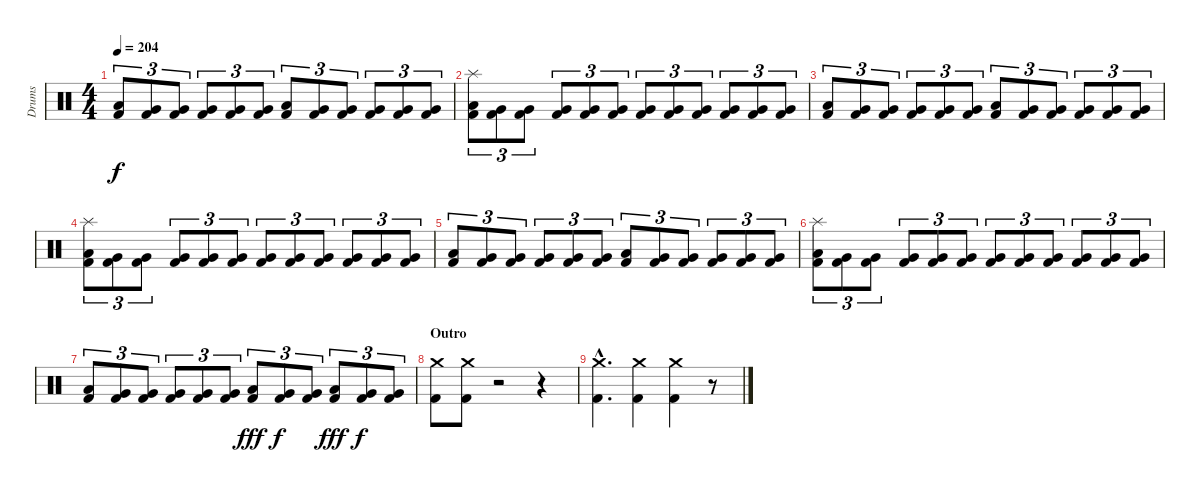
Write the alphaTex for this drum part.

\track ("Drums" "Drums") {instrument percussion}
\staff {score}
\articulation defaults
\ts (4 4)
\tempo 204
\clef neutral
\ks c
("Low Tom (hit)" "Kick (hit) 2").8{tu (3 2) dy f} ("Very Low Tom (hit)" "Kick (hit) 2").8{tu (3 2)} ("Very Low Tom (hit)" "Kick (hit) 2").8{tu (3 2)} ("Very Low Tom (hit)" "Kick (hit) 2").8{tu (3 2)} ("Very Low Tom (hit)" "Kick (hit) 2").8{tu (3 2)} ("Very Low Tom (hit)" "Kick (hit) 2").8{tu (3 2)} ("Low Tom (hit)" "Kick (hit) 2").8{tu (3 2)} ("Very Low Tom (hit)" "Kick (hit) 2").8{tu (3 2)} ("Very Low Tom (hit)" "Kick (hit) 2").8{tu (3 2)} ("Very Low Tom (hit)" "Kick (hit) 2").8{tu (3 2)} ("Very Low Tom (hit)" "Kick (hit) 2").8{tu (3 2)} ("Very Low Tom (hit)" "Kick (hit) 2").8{tu (3 2)} |
("Splash (hit)" "Low Tom (hit)" "Kick (hit) 2").8{tu (3 2)} ("Very Low Tom (hit)" "Kick (hit) 2").8{tu (3 2)} ("Very Low Tom (hit)" "Kick (hit) 2").8{tu (3 2)} ("Very Low Tom (hit)" "Kick (hit) 2").8{tu (3 2)} ("Very Low Tom (hit)" "Kick (hit) 2").8{tu (3 2)} ("Very Low Tom (hit)" "Kick (hit) 2").8{tu (3 2)} ("Very Low Tom (hit)" "Kick (hit) 2").8{tu (3 2)} ("Very Low Tom (hit)" "Kick (hit) 2").8{tu (3 2)} ("Very Low Tom (hit)" "Kick (hit) 2").8{tu (3 2)} ("Very Low Tom (hit)" "Kick (hit) 2").8{tu (3 2)} ("Very Low Tom (hit)" "Kick (hit) 2").8{tu (3 2)} ("Very Low Tom (hit)" "Kick (hit) 2").8{tu (3 2)} |
("Low Tom (hit)" "Kick (hit) 2").8{tu (3 2)} ("Very Low Tom (hit)" "Kick (hit) 2").8{tu (3 2)} ("Very Low Tom (hit)" "Kick (hit) 2").8{tu (3 2)} ("Very Low Tom (hit)" "Kick (hit) 2").8{tu (3 2)} ("Very Low Tom (hit)" "Kick (hit) 2").8{tu (3 2)} ("Very Low Tom (hit)" "Kick (hit) 2").8{tu (3 2)} ("Low Tom (hit)" "Kick (hit) 2").8{tu (3 2)} ("Very Low Tom (hit)" "Kick (hit) 2").8{tu (3 2)} ("Very Low Tom (hit)" "Kick (hit) 2").8{tu (3 2)} ("Very Low Tom (hit)" "Kick (hit) 2").8{tu (3 2)} ("Very Low Tom (hit)" "Kick (hit) 2").8{tu (3 2)} ("Very Low Tom (hit)" "Kick (hit) 2").8{tu (3 2)} |
("Splash (hit)" "Low Tom (hit)" "Kick (hit) 2").8{tu (3 2)} ("Very Low Tom (hit)" "Kick (hit) 2").8{tu (3 2)} ("Very Low Tom (hit)" "Kick (hit) 2").8{tu (3 2)} ("Very Low Tom (hit)" "Kick (hit) 2").8{tu (3 2)} ("Very Low Tom (hit)" "Kick (hit) 2").8{tu (3 2)} ("Very Low Tom (hit)" "Kick (hit) 2").8{tu (3 2)} ("Very Low Tom (hit)" "Kick (hit) 2").8{tu (3 2)} ("Very Low Tom (hit)" "Kick (hit) 2").8{tu (3 2)} ("Very Low Tom (hit)" "Kick (hit) 2").8{tu (3 2)} ("Very Low Tom (hit)" "Kick (hit) 2").8{tu (3 2)} ("Very Low Tom (hit)" "Kick (hit) 2").8{tu (3 2)} ("Very Low Tom (hit)" "Kick (hit) 2").8{tu (3 2)} |
("Low Tom (hit)" "Kick (hit) 2").8{tu (3 2)} ("Very Low Tom (hit)" "Kick (hit) 2").8{tu (3 2)} ("Very Low Tom (hit)" "Kick (hit) 2").8{tu (3 2)} ("Very Low Tom (hit)" "Kick (hit) 2").8{tu (3 2)} ("Very Low Tom (hit)" "Kick (hit) 2").8{tu (3 2)} ("Very Low Tom (hit)" "Kick (hit) 2").8{tu (3 2)} ("Low Tom (hit)" "Kick (hit) 2").8{tu (3 2)} ("Very Low Tom (hit)" "Kick (hit) 2").8{tu (3 2)} ("Very Low Tom (hit)" "Kick (hit) 2").8{tu (3 2)} ("Very Low Tom (hit)" "Kick (hit) 2").8{tu (3 2)} ("Very Low Tom (hit)" "Kick (hit) 2").8{tu (3 2)} ("Very Low Tom (hit)" "Kick (hit) 2").8{tu (3 2)} |
("Splash (hit)" "Low Tom (hit)" "Kick (hit) 2").8{tu (3 2)} ("Very Low Tom (hit)" "Kick (hit) 2").8{tu (3 2)} ("Very Low Tom (hit)" "Kick (hit) 2").8{tu (3 2)} ("Very Low Tom (hit)" "Kick (hit) 2").8{tu (3 2)} ("Very Low Tom (hit)" "Kick (hit) 2").8{tu (3 2)} ("Very Low Tom (hit)" "Kick (hit) 2").8{tu (3 2)} ("Very Low Tom (hit)" "Kick (hit) 2").8{tu (3 2)} ("Very Low Tom (hit)" "Kick (hit) 2").8{tu (3 2)} ("Very Low Tom (hit)" "Kick (hit) 2").8{tu (3 2)} ("Very Low Tom (hit)" "Kick (hit) 2").8{tu (3 2)} ("Very Low Tom (hit)" "Kick (hit) 2").8{tu (3 2)} ("Very Low Tom (hit)" "Kick (hit) 2").8{tu (3 2)} |
("Low Tom (hit)" "Kick (hit) 2").8{tu (3 2)} ("Very Low Tom (hit)" "Kick (hit) 2").8{tu (3 2)} ("Very Low Tom (hit)" "Kick (hit) 2").8{tu (3 2)} ("Very Low Tom (hit)" "Kick (hit) 2").8{tu (3 2)} ("Very Low Tom (hit)" "Kick (hit) 2").8{tu (3 2)} ("Very Low Tom (hit)" "Kick (hit) 2").8{tu (3 2)} ("Low Tom (hit)" "Kick (hit) 2").8{tu (3 2) dy fff} ("Very Low Tom (hit)" "Kick (hit) 2").8{tu (3 2) dy f} ("Very Low Tom (hit)" "Kick (hit) 2").8{tu (3 2)} ("Low Tom (hit)" "Kick (hit) 2").8{tu (3 2) dy fff} ("Very Low Tom (hit)" "Kick (hit) 2").8{tu (3 2) dy f} ("Very Low Tom (hit)" "Kick (hit) 2").8{tu (3 2)} |
\section ("" "Outro")
("Crash medium (hit)" "Kick (hit) 2").8 ("Crash medium (hit)" "Kick (hit) 2").8 r.2 r.4 |
("Crash medium (hit)"{hac} "Kick (hit) 2"{hac}).4{d} ("Crash medium (hit)" "Kick (hit) 2").4 ("Crash medium (hit)" "Kick (hit) 2").4 r.8
